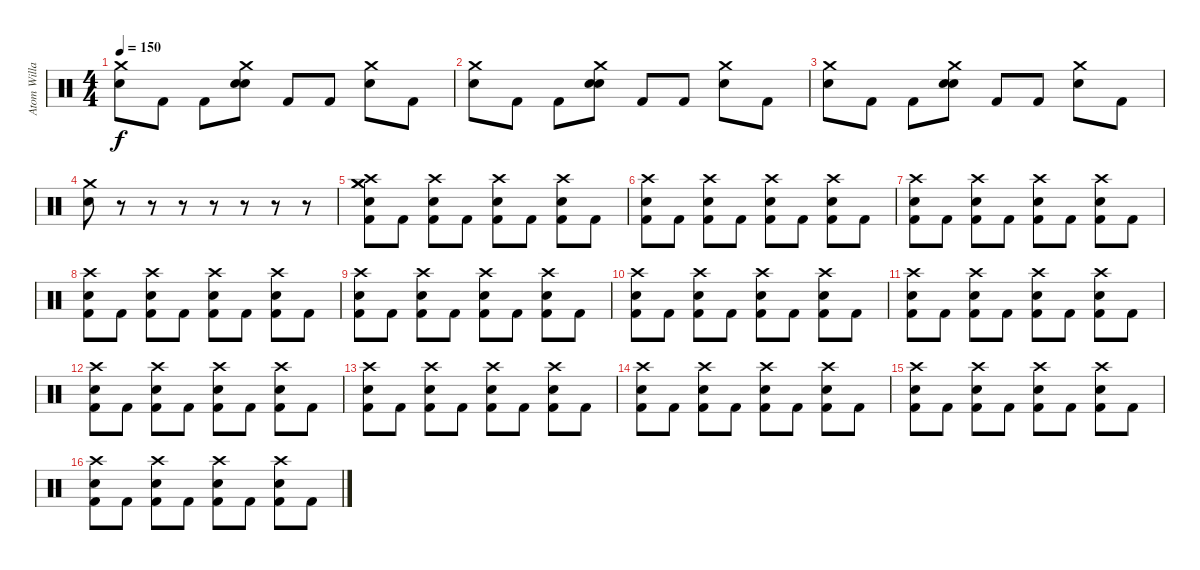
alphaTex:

\track ("Atom Willard - Drums" "Atom Willa") {instrument percussion}
\staff {score}
\articulation defaults
\ts (4 4)
\tempo 150
\clef neutral
\ks c
("Crash medium (hit)" "Electric Snare (hit)").8{dy f} "Kick (hit) 2".8 "Kick (hit) 2".8 ("Crash medium (hit)" "Electric Snare (hit)" "Snare (hit)").8 "Kick (hit) 2".8 "Kick (hit) 2".8 ("Crash medium (hit)" "Electric Snare (hit)").8 "Kick (hit) 2".8 |
("Crash medium (hit)" "Electric Snare (hit)").8 "Kick (hit) 2".8 "Kick (hit) 2".8 ("Crash medium (hit)" "Electric Snare (hit)" "Snare (hit)").8 "Kick (hit) 2".8 "Kick (hit) 2".8 ("Crash medium (hit)" "Electric Snare (hit)").8 "Kick (hit) 2".8 |
("Crash medium (hit)" "Electric Snare (hit)").8 "Kick (hit) 2".8 "Kick (hit) 2".8 ("Crash medium (hit)" "Electric Snare (hit)" "Snare (hit)").8 "Kick (hit) 2".8 "Kick (hit) 2".8 ("Crash medium (hit)" "Electric Snare (hit)").8 "Kick (hit) 2".8 |
("Crash medium (hit)" "Electric Snare (hit)").8 r.8 r.8 r.8 r.8 r.8 r.8 r.8 |
("Crash medium (hit)" "Crash high (hit)" "Crash medium (hit)" "Electric Snare (hit)" "Kick (hit) 2").8 "Kick (hit) 2".8 ("Crash high (hit)" "Electric Snare (hit)" "Kick (hit) 2").8 "Kick (hit) 2".8 ("Crash high (hit)" "Electric Snare (hit)" "Kick (hit) 2").8 "Kick (hit) 2".8 ("Crash high (hit)" "Electric Snare (hit)" "Kick (hit) 2").8 "Kick (hit) 2".8 |
("Crash high (hit)" "Electric Snare (hit)" "Kick (hit) 2").8 "Kick (hit) 2".8 ("Crash high (hit)" "Electric Snare (hit)" "Kick (hit) 2").8 "Kick (hit) 2".8 ("Crash high (hit)" "Electric Snare (hit)" "Kick (hit) 2").8 "Kick (hit) 2".8 ("Crash high (hit)" "Electric Snare (hit)" "Kick (hit) 2").8 "Kick (hit) 2".8 |
("Crash high (hit)" "Electric Snare (hit)" "Kick (hit) 2").8 "Kick (hit) 2".8 ("Crash high (hit)" "Electric Snare (hit)" "Kick (hit) 2").8 "Kick (hit) 2".8 ("Crash high (hit)" "Electric Snare (hit)" "Kick (hit) 2").8 "Kick (hit) 2".8 ("Crash high (hit)" "Electric Snare (hit)" "Kick (hit) 2").8 "Kick (hit) 2".8 |
("Crash high (hit)" "Electric Snare (hit)" "Kick (hit) 2").8 "Kick (hit) 2".8 ("Crash high (hit)" "Electric Snare (hit)" "Kick (hit) 2").8 "Kick (hit) 2".8 ("Crash high (hit)" "Electric Snare (hit)" "Kick (hit) 2").8 "Kick (hit) 2".8 ("Crash high (hit)" "Electric Snare (hit)" "Kick (hit) 2").8 "Kick (hit) 2".8 |
("Crash high (hit)" "Electric Snare (hit)" "Kick (hit) 2").8 "Kick (hit) 2".8 ("Crash high (hit)" "Electric Snare (hit)" "Kick (hit) 2").8 "Kick (hit) 2".8 ("Crash high (hit)" "Electric Snare (hit)" "Kick (hit) 2").8 "Kick (hit) 2".8 ("Crash high (hit)" "Electric Snare (hit)" "Kick (hit) 2").8 "Kick (hit) 2".8 |
("Crash high (hit)" "Electric Snare (hit)" "Kick (hit) 2").8 "Kick (hit) 2".8 ("Crash high (hit)" "Electric Snare (hit)" "Kick (hit) 2").8 "Kick (hit) 2".8 ("Crash high (hit)" "Electric Snare (hit)" "Kick (hit) 2").8 "Kick (hit) 2".8 ("Crash high (hit)" "Electric Snare (hit)" "Kick (hit) 2").8 "Kick (hit) 2".8 |
("Crash high (hit)" "Electric Snare (hit)" "Kick (hit) 2").8 "Kick (hit) 2".8 ("Crash high (hit)" "Electric Snare (hit)" "Kick (hit) 2").8 "Kick (hit) 2".8 ("Crash high (hit)" "Electric Snare (hit)" "Kick (hit) 2").8 "Kick (hit) 2".8 ("Crash high (hit)" "Electric Snare (hit)" "Kick (hit) 2").8 "Kick (hit) 2".8 |
("Crash high (hit)" "Electric Snare (hit)" "Kick (hit) 2").8 "Kick (hit) 2".8 ("Crash high (hit)" "Electric Snare (hit)" "Kick (hit) 2").8 "Kick (hit) 2".8 ("Crash high (hit)" "Electric Snare (hit)" "Kick (hit) 2").8 "Kick (hit) 2".8 ("Crash high (hit)" "Electric Snare (hit)" "Kick (hit) 2").8 "Kick (hit) 2".8 |
("Crash high (hit)" "Electric Snare (hit)" "Kick (hit) 2").8 "Kick (hit) 2".8 ("Crash high (hit)" "Electric Snare (hit)" "Kick (hit) 2").8 "Kick (hit) 2".8 ("Crash high (hit)" "Electric Snare (hit)" "Kick (hit) 2").8 "Kick (hit) 2".8 ("Crash high (hit)" "Electric Snare (hit)" "Kick (hit) 2").8 "Kick (hit) 2".8 |
("Crash high (hit)" "Electric Snare (hit)" "Kick (hit) 2").8 "Kick (hit) 2".8 ("Crash high (hit)" "Electric Snare (hit)" "Kick (hit) 2").8 "Kick (hit) 2".8 ("Crash high (hit)" "Electric Snare (hit)" "Kick (hit) 2").8 "Kick (hit) 2".8 ("Crash high (hit)" "Electric Snare (hit)" "Kick (hit) 2").8 "Kick (hit) 2".8 |
("Crash high (hit)" "Electric Snare (hit)" "Kick (hit) 2").8 "Kick (hit) 2".8 ("Crash high (hit)" "Electric Snare (hit)" "Kick (hit) 2").8 "Kick (hit) 2".8 ("Crash high (hit)" "Electric Snare (hit)" "Kick (hit) 2").8 "Kick (hit) 2".8 ("Crash high (hit)" "Electric Snare (hit)" "Kick (hit) 2").8 "Kick (hit) 2".8 |
("Crash high (hit)" "Electric Snare (hit)" "Kick (hit) 2").8 "Kick (hit) 2".8 ("Crash high (hit)" "Electric Snare (hit)" "Kick (hit) 2").8 "Kick (hit) 2".8 ("Crash high (hit)" "Electric Snare (hit)" "Kick (hit) 2").8 "Kick (hit) 2".8 ("Crash high (hit)" "Electric Snare (hit)" "Kick (hit) 2").8 "Kick (hit) 2".8
